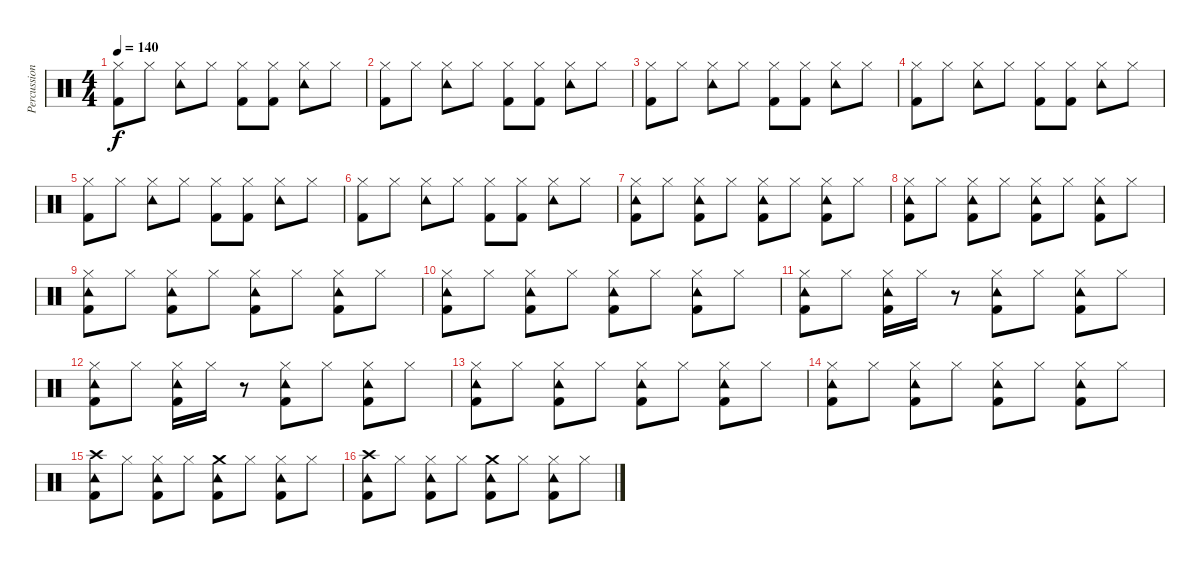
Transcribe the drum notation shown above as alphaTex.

\track ("Percussion" "Percussion") {instrument percussion}
\staff {score}
\articulation defaults
\ts (4 4)
\tempo 140
\clef neutral
\ks c
("Hi-Hat (closed)" "Kick (hit) 2").8{dy f} "Hi-Hat (closed)".8 ("Hi-Hat (closed)" "Tambourine (hit)").8 "Hi-Hat (closed)".8 ("Hi-Hat (closed)" "Kick (hit) 2").8 ("Hi-Hat (closed)" "Kick (hit) 2").8 ("Hi-Hat (closed)" "Tambourine (hit)").8 "Hi-Hat (closed)".8 |
("Hi-Hat (closed)" "Kick (hit) 2").8 "Hi-Hat (closed)".8 ("Hi-Hat (closed)" "Tambourine (hit)").8 "Hi-Hat (closed)".8 ("Hi-Hat (closed)" "Kick (hit) 2").8 ("Hi-Hat (closed)" "Kick (hit) 2").8 ("Hi-Hat (closed)" "Tambourine (hit)").8 "Hi-Hat (closed)".8 |
("Hi-Hat (closed)" "Kick (hit) 2").8 "Hi-Hat (closed)".8 ("Hi-Hat (closed)" "Tambourine (hit)").8 "Hi-Hat (closed)".8 ("Hi-Hat (closed)" "Kick (hit) 2").8 ("Hi-Hat (closed)" "Kick (hit) 2").8 ("Hi-Hat (closed)" "Tambourine (hit)").8 "Hi-Hat (closed)".8 |
("Hi-Hat (closed)" "Kick (hit) 2").8 "Hi-Hat (closed)".8 ("Hi-Hat (closed)" "Tambourine (hit)").8 "Hi-Hat (closed)".8 ("Hi-Hat (closed)" "Kick (hit) 2").8 ("Hi-Hat (closed)" "Kick (hit) 2").8 ("Hi-Hat (closed)" "Tambourine (hit)").8 "Hi-Hat (closed)".8 |
("Hi-Hat (closed)" "Kick (hit) 2").8 "Hi-Hat (closed)".8 ("Hi-Hat (closed)" "Tambourine (hit)").8 "Hi-Hat (closed)".8 ("Hi-Hat (closed)" "Kick (hit) 2").8 ("Hi-Hat (closed)" "Kick (hit) 2").8 ("Hi-Hat (closed)" "Tambourine (hit)").8 "Hi-Hat (closed)".8 |
("Hi-Hat (closed)" "Kick (hit) 2").8 "Hi-Hat (closed)".8 ("Hi-Hat (closed)" "Tambourine (hit)").8 "Hi-Hat (closed)".8 ("Hi-Hat (closed)" "Kick (hit) 2").8 ("Hi-Hat (closed)" "Kick (hit) 2").8 ("Hi-Hat (closed)" "Tambourine (hit)").8 "Hi-Hat (closed)".8 |
("Hi-Hat (closed)" "Tambourine (hit)" "Kick (hit) 2").8 "Hi-Hat (closed)".8 ("Hi-Hat (closed)" "Tambourine (hit)" "Kick (hit) 2").8 "Hi-Hat (closed)".8 ("Hi-Hat (closed)" "Tambourine (hit)" "Kick (hit) 2").8 "Hi-Hat (closed)".8 ("Hi-Hat (closed)" "Tambourine (hit)" "Kick (hit) 2").8 "Hi-Hat (closed)".8 |
("Hi-Hat (closed)" "Tambourine (hit)" "Kick (hit) 2").8 "Hi-Hat (closed)".8 ("Hi-Hat (closed)" "Tambourine (hit)" "Kick (hit) 2").8 "Hi-Hat (closed)".8 ("Hi-Hat (closed)" "Tambourine (hit)" "Kick (hit) 2").8 "Hi-Hat (closed)".8 ("Hi-Hat (closed)" "Tambourine (hit)" "Kick (hit) 2").8 "Hi-Hat (closed)".8 |
("Hi-Hat (closed)" "Tambourine (hit)" "Kick (hit) 2").8 "Hi-Hat (closed)".8 ("Hi-Hat (closed)" "Tambourine (hit)" "Kick (hit) 2").8 "Hi-Hat (closed)".8 ("Hi-Hat (closed)" "Tambourine (hit)" "Kick (hit) 2").8 "Hi-Hat (closed)".8 ("Hi-Hat (closed)" "Tambourine (hit)" "Kick (hit) 2").8 "Hi-Hat (closed)".8 |
("Hi-Hat (closed)" "Tambourine (hit)" "Kick (hit) 2").8 "Hi-Hat (closed)".8 ("Hi-Hat (closed)" "Tambourine (hit)" "Kick (hit) 2").8 "Hi-Hat (closed)".8 ("Hi-Hat (closed)" "Tambourine (hit)" "Kick (hit) 2").8 "Hi-Hat (closed)".8 ("Hi-Hat (closed)" "Tambourine (hit)" "Kick (hit) 2").8 "Hi-Hat (closed)".8 |
("Hi-Hat (closed)" "Tambourine (hit)" "Kick (hit) 2").8 "Hi-Hat (closed)".8 ("Hi-Hat (closed)" "Tambourine (hit)" "Kick (hit) 2").16 "Hi-Hat (closed)".16 r.8 ("Hi-Hat (closed)" "Tambourine (hit)" "Kick (hit) 2").8 "Hi-Hat (closed)".8 ("Hi-Hat (closed)" "Tambourine (hit)" "Kick (hit) 2").8 "Hi-Hat (closed)".8 |
("Hi-Hat (closed)" "Tambourine (hit)" "Kick (hit) 2").8 "Hi-Hat (closed)".8 ("Hi-Hat (closed)" "Tambourine (hit)" "Kick (hit) 2").16 "Hi-Hat (closed)".16 r.8 ("Hi-Hat (closed)" "Tambourine (hit)" "Kick (hit) 2").8 "Hi-Hat (closed)".8 ("Hi-Hat (closed)" "Tambourine (hit)" "Kick (hit) 2").8 "Hi-Hat (closed)".8 |
("Hi-Hat (closed)" "Tambourine (hit)" "Kick (hit) 2").8 "Hi-Hat (closed)".8 ("Hi-Hat (closed)" "Tambourine (hit)" "Kick (hit) 2").8 "Hi-Hat (closed)".8 ("Hi-Hat (closed)" "Tambourine (hit)" "Kick (hit) 2").8 "Hi-Hat (closed)".8 ("Hi-Hat (closed)" "Tambourine (hit)" "Kick (hit) 2").8 "Hi-Hat (closed)".8 |
("Hi-Hat (closed)" "Tambourine (hit)" "Kick (hit) 2").8 "Hi-Hat (closed)".8 ("Hi-Hat (closed)" "Tambourine (hit)" "Kick (hit) 2").8 "Hi-Hat (closed)".8 ("Hi-Hat (closed)" "Tambourine (hit)" "Kick (hit) 2").8 "Hi-Hat (closed)".8 ("Hi-Hat (closed)" "Tambourine (hit)" "Kick (hit) 2").8 "Hi-Hat (closed)".8 |
("Crash high (hit)" "Tambourine (hit)" "Kick (hit) 2").8 "Hi-Hat (closed)".8 ("Hi-Hat (closed)" "Tambourine (hit)" "Kick (hit) 2").8 "Hi-Hat (closed)".8 ("Crash medium (hit)" "Tambourine (hit)" "Kick (hit) 2").8 "Hi-Hat (closed)".8 ("Hi-Hat (closed)" "Tambourine (hit)" "Kick (hit) 2").8 "Hi-Hat (closed)".8 |
("Crash high (hit)" "Tambourine (hit)" "Kick (hit) 2").8 "Hi-Hat (closed)".8 ("Hi-Hat (closed)" "Tambourine (hit)" "Kick (hit) 2").8 "Hi-Hat (closed)".8 ("Crash medium (hit)" "Tambourine (hit)" "Kick (hit) 2").8 "Hi-Hat (closed)".8 ("Hi-Hat (closed)" "Tambourine (hit)" "Kick (hit) 2").8 "Hi-Hat (closed)".8
